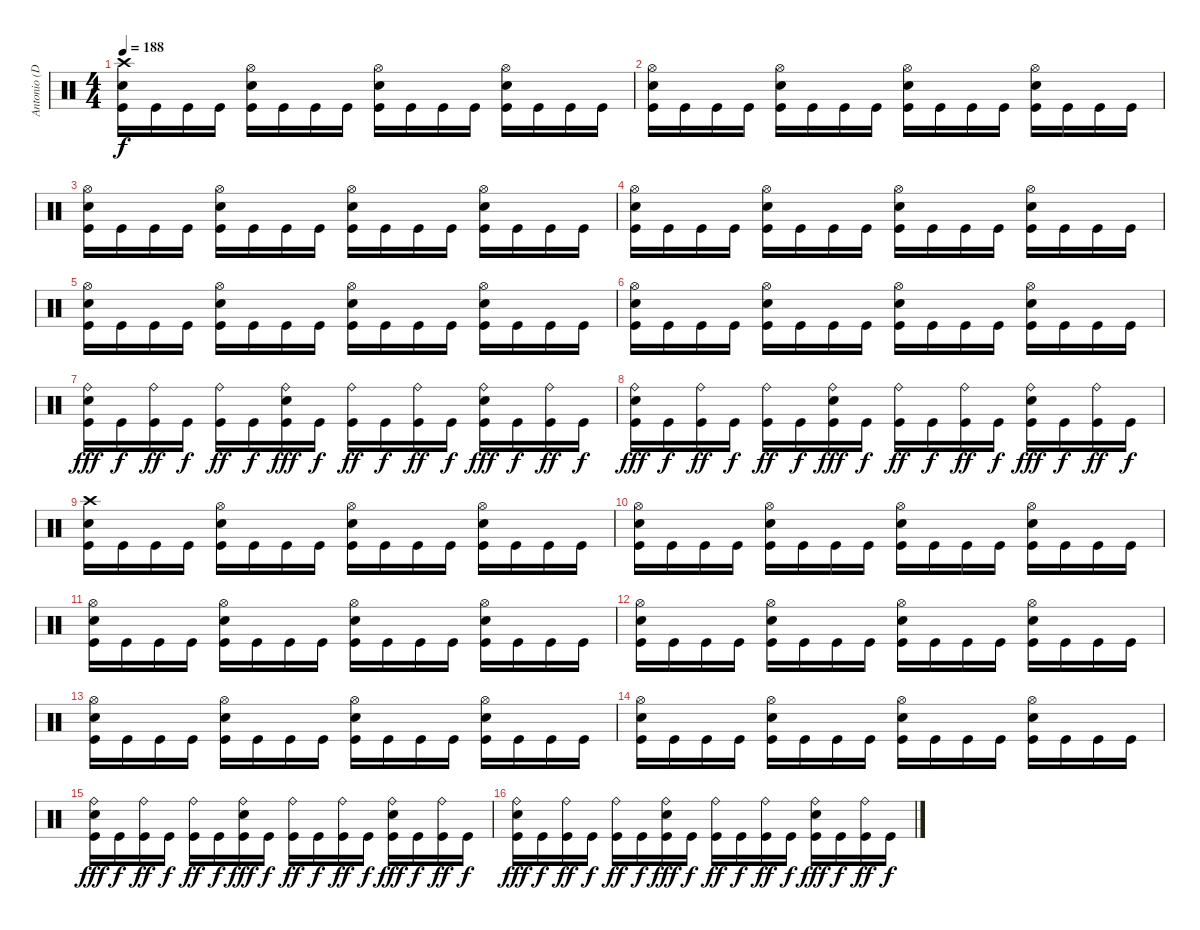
\track ("Antonio (Drums)" "Antonio (D") {instrument percussion}
\staff {score}
\articulation defaults
\ts (4 4)
\tempo 188
\clef neutral
\ks c
("Crash high (hit)" "Electric Snare (hit)" "Kick (hit)").16{dy f} "Kick (hit)".16 "Kick (hit)".16 "Kick (hit)".16 ("Hi-Hat (open)" "Electric Snare (hit)" "Kick (hit)").16 "Kick (hit)".16 "Kick (hit)".16 "Kick (hit)".16 ("Hi-Hat (open)" "Electric Snare (hit)" "Kick (hit)").16 "Kick (hit)".16 "Kick (hit)".16 "Kick (hit)".16 ("Hi-Hat (open)" "Electric Snare (hit)" "Kick (hit)").16 "Kick (hit)".16 "Kick (hit)".16 "Kick (hit)".16 |
("Hi-Hat (open)" "Electric Snare (hit)" "Kick (hit)").16 "Kick (hit)".16 "Kick (hit)".16 "Kick (hit)".16 ("Hi-Hat (open)" "Electric Snare (hit)" "Kick (hit)").16 "Kick (hit)".16 "Kick (hit)".16 "Kick (hit)".16 ("Hi-Hat (open)" "Electric Snare (hit)" "Kick (hit)").16 "Kick (hit)".16 "Kick (hit)".16 "Kick (hit)".16 ("Hi-Hat (open)" "Electric Snare (hit)" "Kick (hit)").16 "Kick (hit)".16 "Kick (hit)".16 "Kick (hit)".16 |
("Hi-Hat (open)" "Electric Snare (hit)" "Kick (hit)").16 "Kick (hit)".16 "Kick (hit)".16 "Kick (hit)".16 ("Hi-Hat (open)" "Electric Snare (hit)" "Kick (hit)").16 "Kick (hit)".16 "Kick (hit)".16 "Kick (hit)".16 ("Hi-Hat (open)" "Electric Snare (hit)" "Kick (hit)").16 "Kick (hit)".16 "Kick (hit)".16 "Kick (hit)".16 ("Hi-Hat (open)" "Electric Snare (hit)" "Kick (hit)").16 "Kick (hit)".16 "Kick (hit)".16 "Kick (hit)".16 |
("Hi-Hat (open)" "Electric Snare (hit)" "Kick (hit)").16 "Kick (hit)".16 "Kick (hit)".16 "Kick (hit)".16 ("Hi-Hat (open)" "Electric Snare (hit)" "Kick (hit)").16 "Kick (hit)".16 "Kick (hit)".16 "Kick (hit)".16 ("Hi-Hat (open)" "Electric Snare (hit)" "Kick (hit)").16 "Kick (hit)".16 "Kick (hit)".16 "Kick (hit)".16 ("Hi-Hat (open)" "Electric Snare (hit)" "Kick (hit)").16 "Kick (hit)".16 "Kick (hit)".16 "Kick (hit)".16 |
("Hi-Hat (open)" "Electric Snare (hit)" "Kick (hit)").16 "Kick (hit)".16 "Kick (hit)".16 "Kick (hit)".16 ("Hi-Hat (open)" "Electric Snare (hit)" "Kick (hit)").16 "Kick (hit)".16 "Kick (hit)".16 "Kick (hit)".16 ("Hi-Hat (open)" "Electric Snare (hit)" "Kick (hit)").16 "Kick (hit)".16 "Kick (hit)".16 "Kick (hit)".16 ("Hi-Hat (open)" "Electric Snare (hit)" "Kick (hit)").16 "Kick (hit)".16 "Kick (hit)".16 "Kick (hit)".16 |
("Hi-Hat (open)" "Electric Snare (hit)" "Kick (hit)").16 "Kick (hit)".16 "Kick (hit)".16 "Kick (hit)".16 ("Hi-Hat (open)" "Electric Snare (hit)" "Kick (hit)").16 "Kick (hit)".16 "Kick (hit)".16 "Kick (hit)".16 ("Hi-Hat (open)" "Electric Snare (hit)" "Kick (hit)").16 "Kick (hit)".16 "Kick (hit)".16 "Kick (hit)".16 ("Hi-Hat (open)" "Electric Snare (hit)" "Kick (hit)").16 "Kick (hit)".16 "Kick (hit)".16 "Kick (hit)".16 |
("Ride (bell)" "Electric Snare (hit)" "Kick (hit)").16{dy fff} "Kick (hit)".16{dy f} ("Ride (bell)" "Kick (hit)").16{dy ff} "Kick (hit)".16{dy f} ("Ride (bell)" "Kick (hit)").16{dy ff} "Kick (hit)".16{dy f} ("Ride (bell)" "Electric Snare (hit)" "Kick (hit)").16{dy fff} "Kick (hit)".16{dy f} ("Ride (bell)" "Kick (hit)").16{dy ff} "Kick (hit)".16{dy f} ("Ride (bell)" "Kick (hit)").16{dy ff} "Kick (hit)".16{dy f} ("Ride (bell)" "Electric Snare (hit)" "Kick (hit)").16{dy fff} "Kick (hit)".16{dy f} ("Ride (bell)" "Kick (hit)").16{dy ff} "Kick (hit)".16{dy f} |
("Ride (bell)" "Electric Snare (hit)" "Kick (hit)").16{dy fff} "Kick (hit)".16{dy f} ("Ride (bell)" "Kick (hit)").16{dy ff} "Kick (hit)".16{dy f} ("Ride (bell)" "Kick (hit)").16{dy ff} "Kick (hit)".16{dy f} ("Ride (bell)" "Electric Snare (hit)" "Kick (hit)").16{dy fff} "Kick (hit)".16{dy f} ("Ride (bell)" "Kick (hit)").16{dy ff} "Kick (hit)".16{dy f} ("Ride (bell)" "Kick (hit)").16{dy ff} "Kick (hit)".16{dy f} ("Ride (bell)" "Electric Snare (hit)" "Kick (hit)").16{dy fff} "Kick (hit)".16{dy f} ("Ride (bell)" "Kick (hit)").16{dy ff} "Kick (hit)".16{dy f} |
("Crash high (hit)" "Electric Snare (hit)" "Kick (hit)").16 "Kick (hit)".16 "Kick (hit)".16 "Kick (hit)".16 ("Hi-Hat (open)" "Electric Snare (hit)" "Kick (hit)").16 "Kick (hit)".16 "Kick (hit)".16 "Kick (hit)".16 ("Hi-Hat (open)" "Electric Snare (hit)" "Kick (hit)").16 "Kick (hit)".16 "Kick (hit)".16 "Kick (hit)".16 ("Hi-Hat (open)" "Electric Snare (hit)" "Kick (hit)").16 "Kick (hit)".16 "Kick (hit)".16 "Kick (hit)".16 |
("Hi-Hat (open)" "Electric Snare (hit)" "Kick (hit)").16 "Kick (hit)".16 "Kick (hit)".16 "Kick (hit)".16 ("Hi-Hat (open)" "Electric Snare (hit)" "Kick (hit)").16 "Kick (hit)".16 "Kick (hit)".16 "Kick (hit)".16 ("Hi-Hat (open)" "Electric Snare (hit)" "Kick (hit)").16 "Kick (hit)".16 "Kick (hit)".16 "Kick (hit)".16 ("Hi-Hat (open)" "Electric Snare (hit)" "Kick (hit)").16 "Kick (hit)".16 "Kick (hit)".16 "Kick (hit)".16 |
("Hi-Hat (open)" "Electric Snare (hit)" "Kick (hit)").16 "Kick (hit)".16 "Kick (hit)".16 "Kick (hit)".16 ("Hi-Hat (open)" "Electric Snare (hit)" "Kick (hit)").16 "Kick (hit)".16 "Kick (hit)".16 "Kick (hit)".16 ("Hi-Hat (open)" "Electric Snare (hit)" "Kick (hit)").16 "Kick (hit)".16 "Kick (hit)".16 "Kick (hit)".16 ("Hi-Hat (open)" "Electric Snare (hit)" "Kick (hit)").16 "Kick (hit)".16 "Kick (hit)".16 "Kick (hit)".16 |
("Hi-Hat (open)" "Electric Snare (hit)" "Kick (hit)").16 "Kick (hit)".16 "Kick (hit)".16 "Kick (hit)".16 ("Hi-Hat (open)" "Electric Snare (hit)" "Kick (hit)").16 "Kick (hit)".16 "Kick (hit)".16 "Kick (hit)".16 ("Hi-Hat (open)" "Electric Snare (hit)" "Kick (hit)").16 "Kick (hit)".16 "Kick (hit)".16 "Kick (hit)".16 ("Hi-Hat (open)" "Electric Snare (hit)" "Kick (hit)").16 "Kick (hit)".16 "Kick (hit)".16 "Kick (hit)".16 |
("Hi-Hat (open)" "Electric Snare (hit)" "Kick (hit)").16 "Kick (hit)".16 "Kick (hit)".16 "Kick (hit)".16 ("Hi-Hat (open)" "Electric Snare (hit)" "Kick (hit)").16 "Kick (hit)".16 "Kick (hit)".16 "Kick (hit)".16 ("Hi-Hat (open)" "Electric Snare (hit)" "Kick (hit)").16 "Kick (hit)".16 "Kick (hit)".16 "Kick (hit)".16 ("Hi-Hat (open)" "Electric Snare (hit)" "Kick (hit)").16 "Kick (hit)".16 "Kick (hit)".16 "Kick (hit)".16 |
("Hi-Hat (open)" "Electric Snare (hit)" "Kick (hit)").16 "Kick (hit)".16 "Kick (hit)".16 "Kick (hit)".16 ("Hi-Hat (open)" "Electric Snare (hit)" "Kick (hit)").16 "Kick (hit)".16 "Kick (hit)".16 "Kick (hit)".16 ("Hi-Hat (open)" "Electric Snare (hit)" "Kick (hit)").16 "Kick (hit)".16 "Kick (hit)".16 "Kick (hit)".16 ("Hi-Hat (open)" "Electric Snare (hit)" "Kick (hit)").16 "Kick (hit)".16 "Kick (hit)".16 "Kick (hit)".16 |
("Ride (bell)" "Electric Snare (hit)" "Kick (hit)").16{dy fff} "Kick (hit)".16{dy f} ("Ride (bell)" "Kick (hit)").16{dy ff} "Kick (hit)".16{dy f} ("Ride (bell)" "Kick (hit)").16{dy ff} "Kick (hit)".16{dy f} ("Ride (bell)" "Electric Snare (hit)" "Kick (hit)").16{dy fff} "Kick (hit)".16{dy f} ("Ride (bell)" "Kick (hit)").16{dy ff} "Kick (hit)".16{dy f} ("Ride (bell)" "Kick (hit)").16{dy ff} "Kick (hit)".16{dy f} ("Ride (bell)" "Electric Snare (hit)" "Kick (hit)").16{dy fff} "Kick (hit)".16{dy f} ("Ride (bell)" "Kick (hit)").16{dy ff} "Kick (hit)".16{dy f} |
("Ride (bell)" "Electric Snare (hit)" "Kick (hit)").16{dy fff} "Kick (hit)".16{dy f} ("Ride (bell)" "Kick (hit)").16{dy ff} "Kick (hit)".16{dy f} ("Ride (bell)" "Kick (hit)").16{dy ff} "Kick (hit)".16{dy f} ("Ride (bell)" "Electric Snare (hit)" "Kick (hit)").16{dy fff} "Kick (hit)".16{dy f} ("Ride (bell)" "Kick (hit)").16{dy ff} "Kick (hit)".16{dy f} ("Ride (bell)" "Kick (hit)").16{dy ff} "Kick (hit)".16{dy f} ("Ride (bell)" "Electric Snare (hit)" "Kick (hit)").16{dy fff} "Kick (hit)".16{dy f} ("Ride (bell)" "Kick (hit)").16{dy ff} "Kick (hit)".16{dy f}
